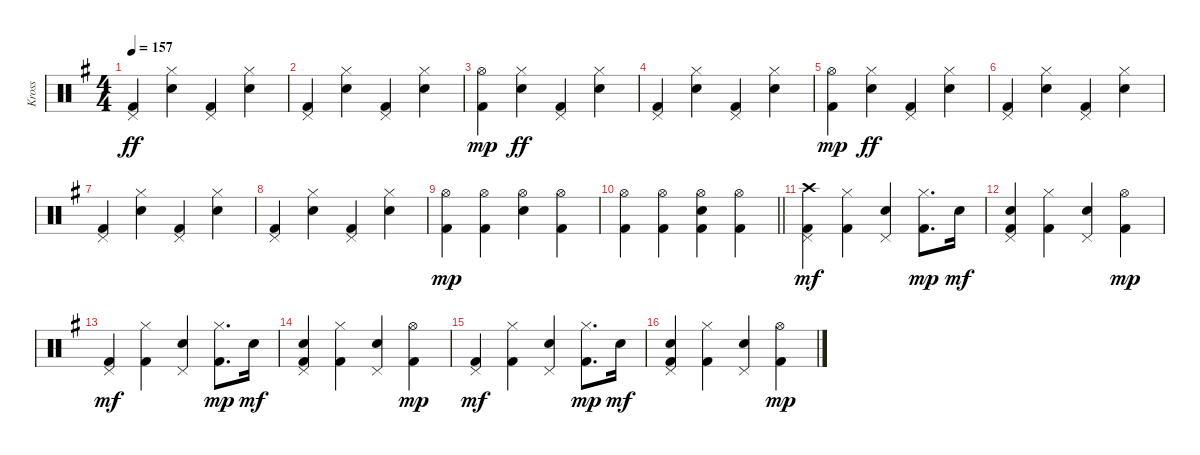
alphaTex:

\track ("Kross" "Kross") {instrument percussion}
\staff {score}
\articulation defaults
\ts (4 4)
\tempo 157
\clef neutral
\ks g
("Pedal Hi-Hat (hit)" "Kick (hit) 2").4{dy ff} ("Hi-Hat (closed)" "Snare (hit) 2").4 ("Pedal Hi-Hat (hit)" "Kick (hit) 2").4 ("Hi-Hat (closed)" "Snare (hit) 2").4 |
("Pedal Hi-Hat (hit)" "Kick (hit) 2").4 ("Hi-Hat (closed)" "Snare (hit) 2").4 ("Pedal Hi-Hat (hit)" "Kick (hit) 2").4 ("Hi-Hat (closed)" "Snare (hit) 2").4 |
("Hi-Hat (open)" "Kick (hit) 2").4{dy mp} ("Hi-Hat (closed)" "Snare (hit) 2").4{dy ff} ("Pedal Hi-Hat (hit)" "Kick (hit) 2").4 ("Hi-Hat (closed)" "Snare (hit) 2").4 |
("Pedal Hi-Hat (hit)" "Kick (hit) 2").4 ("Hi-Hat (closed)" "Snare (hit) 2").4 ("Pedal Hi-Hat (hit)" "Kick (hit) 2").4 ("Hi-Hat (closed)" "Snare (hit) 2").4 |
("Hi-Hat (open)" "Kick (hit) 2").4{dy mp} ("Hi-Hat (closed)" "Snare (hit) 2").4{dy ff} ("Pedal Hi-Hat (hit)" "Kick (hit) 2").4 ("Hi-Hat (closed)" "Snare (hit) 2").4 |
("Pedal Hi-Hat (hit)" "Kick (hit) 2").4 ("Hi-Hat (closed)" "Snare (hit) 2").4 ("Pedal Hi-Hat (hit)" "Kick (hit) 2").4 ("Hi-Hat (closed)" "Snare (hit) 2").4 |
("Pedal Hi-Hat (hit)" "Kick (hit) 2").4 ("Hi-Hat (closed)" "Snare (hit) 2").4 ("Pedal Hi-Hat (hit)" "Kick (hit) 2").4 ("Hi-Hat (closed)" "Snare (hit) 2").4 |
("Pedal Hi-Hat (hit)" "Kick (hit) 2").4 ("Hi-Hat (closed)" "Snare (hit) 2").4 ("Pedal Hi-Hat (hit)" "Kick (hit) 2").4 ("Hi-Hat (closed)" "Snare (hit) 2").4 |
("Hi-Hat (open)" "Kick (hit) 2").4{dy mp} ("Hi-Hat (open)" "Kick (hit) 2").4 ("Hi-Hat (open)" "Snare (hit) 2").4 ("Hi-Hat (open)" "Kick (hit) 2").4 |
\barLineRight lightlight
("Hi-Hat (open)" "Kick (hit) 2").4 ("Hi-Hat (open)" "Kick (hit) 2").4 ("Hi-Hat (open)" "Snare (hit) 2" "Kick (hit) 2").4 ("Hi-Hat (open)" "Kick (hit) 2").4 |
("Crash high (hit)" "Pedal Hi-Hat (hit)" "Kick (hit) 2").4{dy mf} ("Hi-Hat (closed)" "Kick (hit) 2").4 ("Pedal Hi-Hat (hit)" "Snare (hit) 2").4 ("Hi-Hat (closed)" "Kick (hit) 2").8{d dy mp} "Electric Snare (hit)".16{dy mf} |
("Pedal Hi-Hat (hit)" "Snare (hit) 2" "Kick (hit) 2").4 ("Hi-Hat (closed)" "Kick (hit) 2").4 ("Pedal Hi-Hat (hit)" "Snare (hit) 2").4 ("Hi-Hat (open)" "Kick (hit) 2").4{dy mp} |
("Pedal Hi-Hat (hit)" "Kick (hit) 2").4{dy mf} ("Hi-Hat (closed)" "Kick (hit) 2").4 ("Pedal Hi-Hat (hit)" "Snare (hit) 2").4 ("Hi-Hat (closed)" "Kick (hit) 2").8{d dy mp} "Electric Snare (hit)".16{dy mf} |
("Pedal Hi-Hat (hit)" "Snare (hit) 2" "Kick (hit) 2").4 ("Hi-Hat (closed)" "Kick (hit) 2").4 ("Pedal Hi-Hat (hit)" "Snare (hit) 2").4 ("Hi-Hat (open)" "Kick (hit) 2").4{dy mp} |
("Pedal Hi-Hat (hit)" "Kick (hit) 2").4{dy mf} ("Hi-Hat (closed)" "Kick (hit) 2").4 ("Pedal Hi-Hat (hit)" "Snare (hit) 2").4 ("Hi-Hat (closed)" "Kick (hit) 2").8{d dy mp} "Electric Snare (hit)".16{dy mf} |
("Pedal Hi-Hat (hit)" "Snare (hit) 2" "Kick (hit) 2").4 ("Hi-Hat (closed)" "Kick (hit) 2").4 ("Pedal Hi-Hat (hit)" "Snare (hit) 2").4 ("Hi-Hat (open)" "Kick (hit) 2").4{dy mp}
